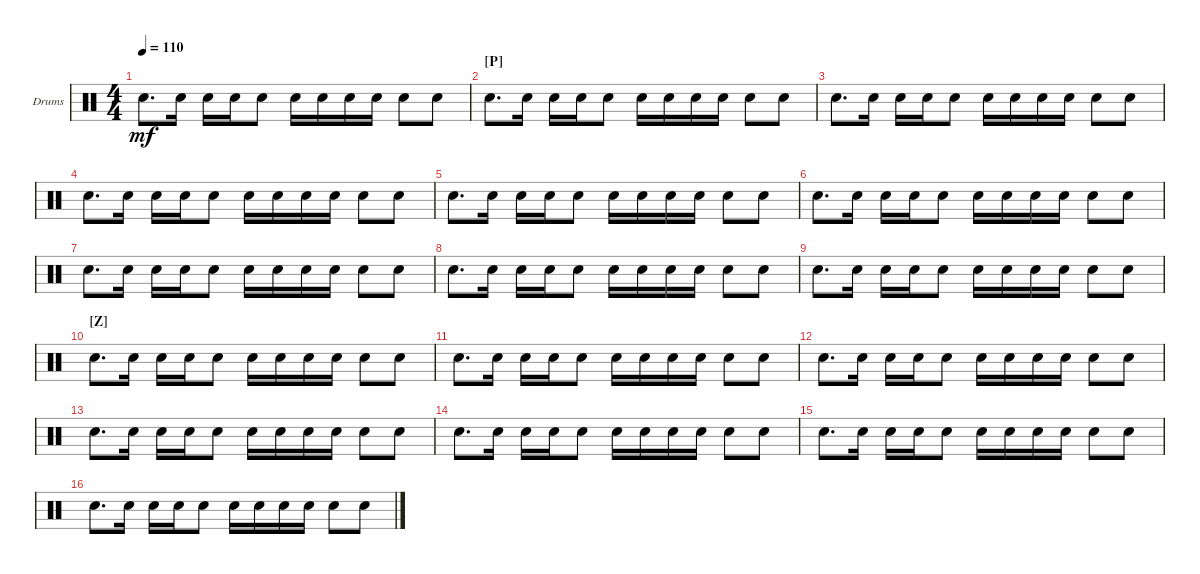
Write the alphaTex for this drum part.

\defaultSystemsLayout 4
\bracketExtendMode groupsimilarinstruments
\firstSystemTrackNameOrientation horizontal
\otherSystemsTrackNameOrientation horizontal
\track ("Drumkit" "Drums") {instrument percussion}
\staff {score}
\articulation defaults
\ts (4 4)
\tempo 110
\clef neutral
\ks c "Snare (hit) 2".8{d dy mf} "Snare (hit) 2".16 "Snare (hit) 2".16 "Snare (hit) 2".16 "Snare (hit) 2".8 "Snare (hit) 2".16 "Snare (hit) 2".16 "Snare (hit) 2".16 "Snare (hit) 2".16 "Snare (hit) 2".8 "Snare (hit) 2".8
|
\section ("P" "")
"Snare (hit) 2".8{d} "Snare (hit) 2".16 "Snare (hit) 2".16 "Snare (hit) 2".16 "Snare (hit) 2".8 "Snare (hit) 2".16 "Snare (hit) 2".16 "Snare (hit) 2".16 "Snare (hit) 2".16 "Snare (hit) 2".8 "Snare (hit) 2".8 |
"Snare (hit) 2".8{d} "Snare (hit) 2".16 "Snare (hit) 2".16 "Snare (hit) 2".16 "Snare (hit) 2".8 "Snare (hit) 2".16 "Snare (hit) 2".16 "Snare (hit) 2".16 "Snare (hit) 2".16 "Snare (hit) 2".8 "Snare (hit) 2".8 |
"Snare (hit) 2".8{d} "Snare (hit) 2".16 "Snare (hit) 2".16 "Snare (hit) 2".16 "Snare (hit) 2".8 "Snare (hit) 2".16 "Snare (hit) 2".16 "Snare (hit) 2".16 "Snare (hit) 2".16 "Snare (hit) 2".8 "Snare (hit) 2".8 |
"Snare (hit) 2".8{d} "Snare (hit) 2".16 "Snare (hit) 2".16 "Snare (hit) 2".16 "Snare (hit) 2".8 "Snare (hit) 2".16 "Snare (hit) 2".16 "Snare (hit) 2".16 "Snare (hit) 2".16 "Snare (hit) 2".8 "Snare (hit) 2".8 |
"Snare (hit) 2".8{d} "Snare (hit) 2".16 "Snare (hit) 2".16 "Snare (hit) 2".16 "Snare (hit) 2".8 "Snare (hit) 2".16 "Snare (hit) 2".16 "Snare (hit) 2".16 "Snare (hit) 2".16 "Snare (hit) 2".8 "Snare (hit) 2".8 |
"Snare (hit) 2".8{d} "Snare (hit) 2".16 "Snare (hit) 2".16 "Snare (hit) 2".16 "Snare (hit) 2".8 "Snare (hit) 2".16 "Snare (hit) 2".16 "Snare (hit) 2".16 "Snare (hit) 2".16 "Snare (hit) 2".8 "Snare (hit) 2".8 |
"Snare (hit) 2".8{d} "Snare (hit) 2".16 "Snare (hit) 2".16 "Snare (hit) 2".16 "Snare (hit) 2".8 "Snare (hit) 2".16 "Snare (hit) 2".16 "Snare (hit) 2".16 "Snare (hit) 2".16 "Snare (hit) 2".8 "Snare (hit) 2".8 |
"Snare (hit) 2".8{d} "Snare (hit) 2".16 "Snare (hit) 2".16 "Snare (hit) 2".16 "Snare (hit) 2".8 "Snare (hit) 2".16 "Snare (hit) 2".16 "Snare (hit) 2".16 "Snare (hit) 2".16 "Snare (hit) 2".8 "Snare (hit) 2".8 |
\section ("Z" "")
"Snare (hit) 2".8{d} "Snare (hit) 2".16 "Snare (hit) 2".16 "Snare (hit) 2".16 "Snare (hit) 2".8 "Snare (hit) 2".16 "Snare (hit) 2".16 "Snare (hit) 2".16 "Snare (hit) 2".16 "Snare (hit) 2".8 "Snare (hit) 2".8 |
"Snare (hit) 2".8{d} "Snare (hit) 2".16 "Snare (hit) 2".16 "Snare (hit) 2".16 "Snare (hit) 2".8 "Snare (hit) 2".16 "Snare (hit) 2".16 "Snare (hit) 2".16 "Snare (hit) 2".16 "Snare (hit) 2".8 "Snare (hit) 2".8 |
"Snare (hit) 2".8{d} "Snare (hit) 2".16 "Snare (hit) 2".16 "Snare (hit) 2".16 "Snare (hit) 2".8 "Snare (hit) 2".16 "Snare (hit) 2".16 "Snare (hit) 2".16 "Snare (hit) 2".16 "Snare (hit) 2".8 "Snare (hit) 2".8 |
"Snare (hit) 2".8{d} "Snare (hit) 2".16 "Snare (hit) 2".16 "Snare (hit) 2".16 "Snare (hit) 2".8 "Snare (hit) 2".16 "Snare (hit) 2".16 "Snare (hit) 2".16 "Snare (hit) 2".16 "Snare (hit) 2".8 "Snare (hit) 2".8 |
"Snare (hit) 2".8{d} "Snare (hit) 2".16 "Snare (hit) 2".16 "Snare (hit) 2".16 "Snare (hit) 2".8 "Snare (hit) 2".16 "Snare (hit) 2".16 "Snare (hit) 2".16 "Snare (hit) 2".16 "Snare (hit) 2".8 "Snare (hit) 2".8 |
"Snare (hit) 2".8{d} "Snare (hit) 2".16 "Snare (hit) 2".16 "Snare (hit) 2".16 "Snare (hit) 2".8 "Snare (hit) 2".16 "Snare (hit) 2".16 "Snare (hit) 2".16 "Snare (hit) 2".16 "Snare (hit) 2".8 "Snare (hit) 2".8 |
"Snare (hit) 2".8{d} "Snare (hit) 2".16 "Snare (hit) 2".16 "Snare (hit) 2".16 "Snare (hit) 2".8 "Snare (hit) 2".16 "Snare (hit) 2".16 "Snare (hit) 2".16 "Snare (hit) 2".16 "Snare (hit) 2".8 "Snare (hit) 2".8
